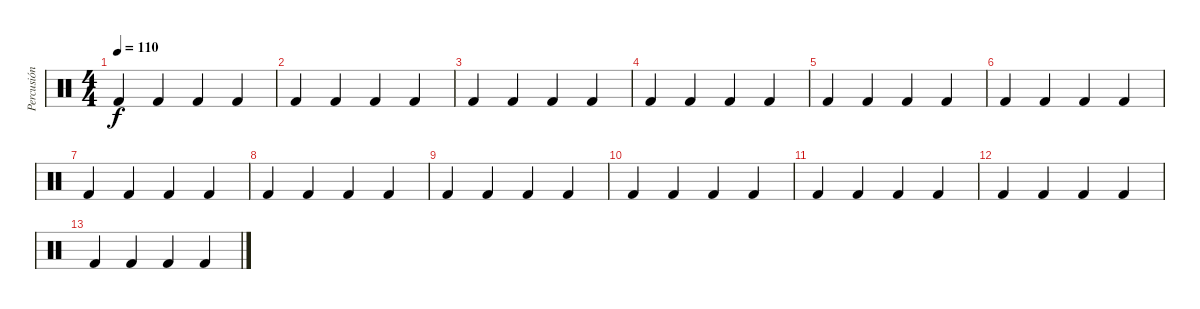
\track ("Percusión" "Percusión") {instrument percussion}
\staff {score}
\articulation defaults
\ts (4 4)
\tempo 110
\clef neutral
\ks c "Kick (hit) 2".4{dy f} "Kick (hit) 2".4 "Kick (hit) 2".4 "Kick (hit) 2".4
|
"Kick (hit) 2".4 "Kick (hit) 2".4 "Kick (hit) 2".4 "Kick (hit) 2".4 |
"Kick (hit) 2".4 "Kick (hit) 2".4 "Kick (hit) 2".4 "Kick (hit) 2".4 |
"Kick (hit) 2".4 "Kick (hit) 2".4 "Kick (hit) 2".4 "Kick (hit) 2".4 |
"Kick (hit) 2".4 "Kick (hit) 2".4 "Kick (hit) 2".4 "Kick (hit) 2".4 |
"Kick (hit) 2".4 "Kick (hit) 2".4 "Kick (hit) 2".4 "Kick (hit) 2".4 |
"Kick (hit) 2".4 "Kick (hit) 2".4 "Kick (hit) 2".4 "Kick (hit) 2".4 |
"Kick (hit) 2".4 "Kick (hit) 2".4 "Kick (hit) 2".4 "Kick (hit) 2".4 |
"Kick (hit) 2".4 "Kick (hit) 2".4 "Kick (hit) 2".4 "Kick (hit) 2".4 |
"Kick (hit) 2".4 "Kick (hit) 2".4 "Kick (hit) 2".4 "Kick (hit) 2".4 |
"Kick (hit) 2".4 "Kick (hit) 2".4 "Kick (hit) 2".4 "Kick (hit) 2".4 |
"Kick (hit) 2".4 "Kick (hit) 2".4 "Kick (hit) 2".4 "Kick (hit) 2".4 |
"Kick (hit) 2".4 "Kick (hit) 2".4 "Kick (hit) 2".4 "Kick (hit) 2".4
